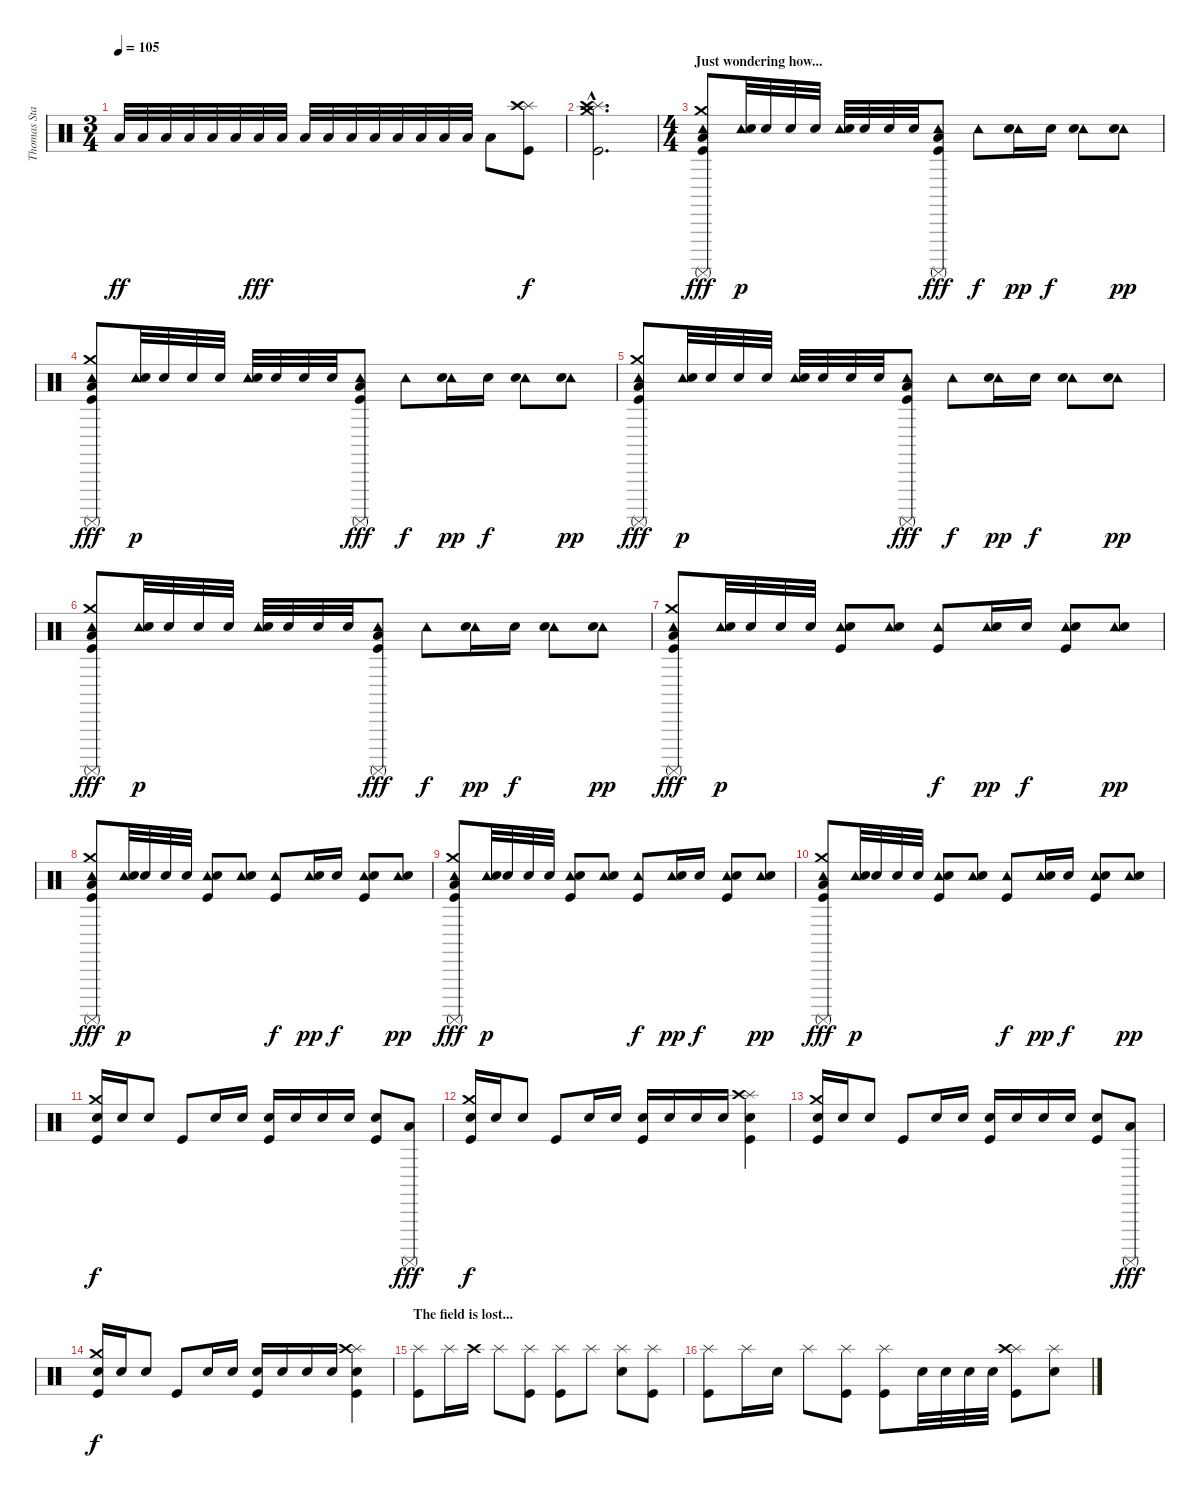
\track ("Thomas Stauch" "Thomas Sta") {instrument percussion}
\staff {score}
\articulation defaults
\ts (3 4)
\tempo 105
\clef neutral
\ks c "Low Floor Tom (hit)".32{dy ff} "Low Floor Tom (hit)".32 "Low Floor Tom (hit)".32 "Low Floor Tom (hit)".32 "Low Floor Tom (hit)".32 "Low Floor Tom (hit)".32 "Low Floor Tom (hit)".32{dy fff} "Low Floor Tom (hit)".32 "Low Floor Tom (hit)".32 "Low Floor Tom (hit)".32 "Low Floor Tom (hit)".32 "Low Floor Tom (hit)".32 "Low Floor Tom (hit)".32 "Low Floor Tom (hit)".32 "Low Floor Tom (hit)".32 "Low Floor Tom (hit)".32 "Low Floor Tom (hit)".8
("Splash (hit)" "Crash high (hit)" "Kick (hit)").8{dy f} |
("Crash medium (hit)"{hac} "Splash (hit)"{hac} "Crash high (hit)"{hac} "Kick (hit)"{hac}).2{d} |
\ts (4 4)
\section ("" "Just wondering how...")
("Crash medium (hit)" "Tambourine (hit)" "Surdo (mute)" "Low Floor Tom (hit)" "Kick (hit)").8{dy fff} ("Tambourine (hit)" "Electric Snare (hit)").32{dy p} "Electric Snare (hit)".32 "Electric Snare (hit)".32 "Electric Snare (hit)".32 ("Tambourine (hit)" "Electric Snare (hit)").32 "Electric Snare (hit)".32 "Electric Snare (hit)".32 "Electric Snare (hit)".32 ("Tambourine (hit)" "Surdo (mute)" "Low Floor Tom (hit)" "Kick (hit)").8{dy fff} "Tambourine (hit)".8{dy f} ("Tambourine (hit)" "Electric Snare (hit)").16{dy pp} "Electric Snare (hit)".16{dy f} ("Tambourine (hit)" "Electric Snare (hit)").8 ("Tambourine (hit)" "Electric Snare (hit)").8{dy pp} |
("Crash medium (hit)" "Tambourine (hit)" "Surdo (mute)" "Low Floor Tom (hit)" "Kick (hit)").8{dy fff} ("Tambourine (hit)" "Electric Snare (hit)").32{dy p} "Electric Snare (hit)".32 "Electric Snare (hit)".32 "Electric Snare (hit)".32 ("Tambourine (hit)" "Electric Snare (hit)").32 "Electric Snare (hit)".32 "Electric Snare (hit)".32 "Electric Snare (hit)".32 ("Tambourine (hit)" "Surdo (mute)" "Low Floor Tom (hit)" "Kick (hit)").8{dy fff} "Tambourine (hit)".8{dy f} ("Tambourine (hit)" "Electric Snare (hit)").16{dy pp} "Electric Snare (hit)".16{dy f} ("Tambourine (hit)" "Electric Snare (hit)").8 ("Tambourine (hit)" "Electric Snare (hit)").8{dy pp} |
("Crash medium (hit)" "Tambourine (hit)" "Surdo (mute)" "Low Floor Tom (hit)" "Kick (hit)").8{dy fff} ("Tambourine (hit)" "Electric Snare (hit)").32{dy p} "Electric Snare (hit)".32 "Electric Snare (hit)".32 "Electric Snare (hit)".32 ("Tambourine (hit)" "Electric Snare (hit)").32 "Electric Snare (hit)".32 "Electric Snare (hit)".32 "Electric Snare (hit)".32 ("Tambourine (hit)" "Surdo (mute)" "Low Floor Tom (hit)" "Kick (hit)").8{dy fff} "Tambourine (hit)".8{dy f} ("Tambourine (hit)" "Electric Snare (hit)").16{dy pp} "Electric Snare (hit)".16{dy f} ("Tambourine (hit)" "Electric Snare (hit)").8 ("Tambourine (hit)" "Electric Snare (hit)").8{dy pp} |
("Crash medium (hit)" "Tambourine (hit)" "Surdo (mute)" "Low Floor Tom (hit)" "Kick (hit)").8{dy fff} ("Tambourine (hit)" "Electric Snare (hit)").32{dy p} "Electric Snare (hit)".32 "Electric Snare (hit)".32 "Electric Snare (hit)".32 ("Tambourine (hit)" "Electric Snare (hit)").32 "Electric Snare (hit)".32 "Electric Snare (hit)".32 "Electric Snare (hit)".32 ("Tambourine (hit)" "Surdo (mute)" "Low Floor Tom (hit)" "Kick (hit)").8{dy fff} "Tambourine (hit)".8{dy f} ("Tambourine (hit)" "Electric Snare (hit)").16{dy pp} "Electric Snare (hit)".16{dy f} ("Tambourine (hit)" "Electric Snare (hit)").8 ("Tambourine (hit)" "Electric Snare (hit)").8{dy pp} |
("Crash medium (hit)" "Tambourine (hit)" "Surdo (mute)" "Low Floor Tom (hit)" "Kick (hit)").8{dy fff} ("Tambourine (hit)" "Electric Snare (hit)").32{dy p} "Electric Snare (hit)".32 "Electric Snare (hit)".32 "Electric Snare (hit)".32 ("Tambourine (hit)" "Electric Snare (hit)" "Kick (hit)").8 ("Tambourine (hit)" "Electric Snare (hit)").8 ("Tambourine (hit)" "Kick (hit)").8{dy f} ("Tambourine (hit)" "Electric Snare (hit)").16{dy pp} "Electric Snare (hit)".16{dy f} ("Tambourine (hit)" "Electric Snare (hit)" "Kick (hit)").8 ("Tambourine (hit)" "Electric Snare (hit)").8{dy pp} |
("Crash medium (hit)" "Tambourine (hit)" "Surdo (mute)" "Low Floor Tom (hit)" "Kick (hit)").8{dy fff} ("Tambourine (hit)" "Electric Snare (hit)").32{dy p} "Electric Snare (hit)".32 "Electric Snare (hit)".32 "Electric Snare (hit)".32 ("Tambourine (hit)" "Electric Snare (hit)" "Kick (hit)").8 ("Tambourine (hit)" "Electric Snare (hit)").8 ("Tambourine (hit)" "Kick (hit)").8{dy f} ("Tambourine (hit)" "Electric Snare (hit)").16{dy pp} "Electric Snare (hit)".16{dy f} ("Tambourine (hit)" "Electric Snare (hit)" "Kick (hit)").8 ("Tambourine (hit)" "Electric Snare (hit)").8{dy pp} |
("Crash medium (hit)" "Tambourine (hit)" "Surdo (mute)" "Low Floor Tom (hit)" "Kick (hit)").8{dy fff} ("Tambourine (hit)" "Electric Snare (hit)").32{dy p} "Electric Snare (hit)".32 "Electric Snare (hit)".32 "Electric Snare (hit)".32 ("Tambourine (hit)" "Electric Snare (hit)" "Kick (hit)").8 ("Tambourine (hit)" "Electric Snare (hit)").8 ("Tambourine (hit)" "Kick (hit)").8{dy f} ("Tambourine (hit)" "Electric Snare (hit)").16{dy pp} "Electric Snare (hit)".16{dy f} ("Tambourine (hit)" "Electric Snare (hit)" "Kick (hit)").8 ("Tambourine (hit)" "Electric Snare (hit)").8{dy pp} |
("Crash medium (hit)" "Tambourine (hit)" "Surdo (mute)" "Low Floor Tom (hit)" "Kick (hit)").8{dy fff} ("Tambourine (hit)" "Electric Snare (hit)").32{dy p} "Electric Snare (hit)".32 "Electric Snare (hit)".32 "Electric Snare (hit)".32 ("Tambourine (hit)" "Electric Snare (hit)" "Kick (hit)").8 ("Tambourine (hit)" "Electric Snare (hit)").8 ("Tambourine (hit)" "Kick (hit)").8{dy f} ("Tambourine (hit)" "Electric Snare (hit)").16{dy pp} "Electric Snare (hit)".16{dy f} ("Tambourine (hit)" "Electric Snare (hit)" "Kick (hit)").8 ("Tambourine (hit)" "Electric Snare (hit)").8{dy pp} |
("Crash medium (hit)" "Electric Snare (hit)" "Kick (hit)").16{dy f} "Electric Snare (hit)".16 "Electric Snare (hit)".8 "Kick (hit)".8 "Electric Snare (hit)".16 "Electric Snare (hit)".16 ("Electric Snare (hit)" "Kick (hit)").16 "Electric Snare (hit)".16 "Electric Snare (hit)".16 "Electric Snare (hit)".16 ("Electric Snare (hit)" "Kick (hit)").8 ("Surdo (mute)" "Low Floor Tom (hit)").8{dy fff} |
("Crash medium (hit)" "Electric Snare (hit)" "Kick (hit)").16{dy f} "Electric Snare (hit)".16 "Electric Snare (hit)".8 "Kick (hit)".8 "Electric Snare (hit)".16 "Electric Snare (hit)".16 ("Electric Snare (hit)" "Kick (hit)").16 "Electric Snare (hit)".16 "Electric Snare (hit)".16 "Electric Snare (hit)".16 ("Splash (hit)" "Crash high (hit)" "Electric Snare (hit)" "Kick (hit)").4 |
("Crash medium (hit)" "Electric Snare (hit)" "Kick (hit)").16 "Electric Snare (hit)".16 "Electric Snare (hit)".8 "Kick (hit)".8 "Electric Snare (hit)".16 "Electric Snare (hit)".16 ("Electric Snare (hit)" "Kick (hit)").16 "Electric Snare (hit)".16 "Electric Snare (hit)".16 "Electric Snare (hit)".16 ("Electric Snare (hit)" "Kick (hit)").8 ("Surdo (mute)" "Low Floor Tom (hit)").8{dy fff} |
("Crash medium (hit)" "Electric Snare (hit)" "Kick (hit)").16{dy f} "Electric Snare (hit)".16 "Electric Snare (hit)".8 "Kick (hit)".8 "Electric Snare (hit)".16 "Electric Snare (hit)".16 ("Electric Snare (hit)" "Kick (hit)").16 "Electric Snare (hit)".16 "Electric Snare (hit)".16 "Electric Snare (hit)".16 ("Splash (hit)" "Crash high (hit)" "Electric Snare (hit)" "Kick (hit)").4 |
\section ("" "The field is lost...")
("Splash (hit)" "Kick (hit)").8 "Splash (hit)".16 "Crash high (hit)".16 "Splash (hit)".8 ("Splash (hit)" "Kick (hit)").8 ("Splash (hit)" "Kick (hit)").8 "Splash (hit)".8 ("Splash (hit)" "Electric Snare (hit)").8 ("Splash (hit)" "Kick (hit)").8 |
("Splash (hit)" "Kick (hit)").8 "Splash (hit)".16 "Electric Snare (hit)".16 "Splash (hit)".8 ("Splash (hit)" "Kick (hit)").8 ("Splash (hit)" "Kick (hit)").8 "Electric Snare (hit)".32 "Electric Snare (hit)".32 "Electric Snare (hit)".32 "Electric Snare (hit)".32 ("Splash (hit)" "Crash high (hit)" "Kick (hit)").8 ("Splash (hit)" "Electric Snare (hit)").8
